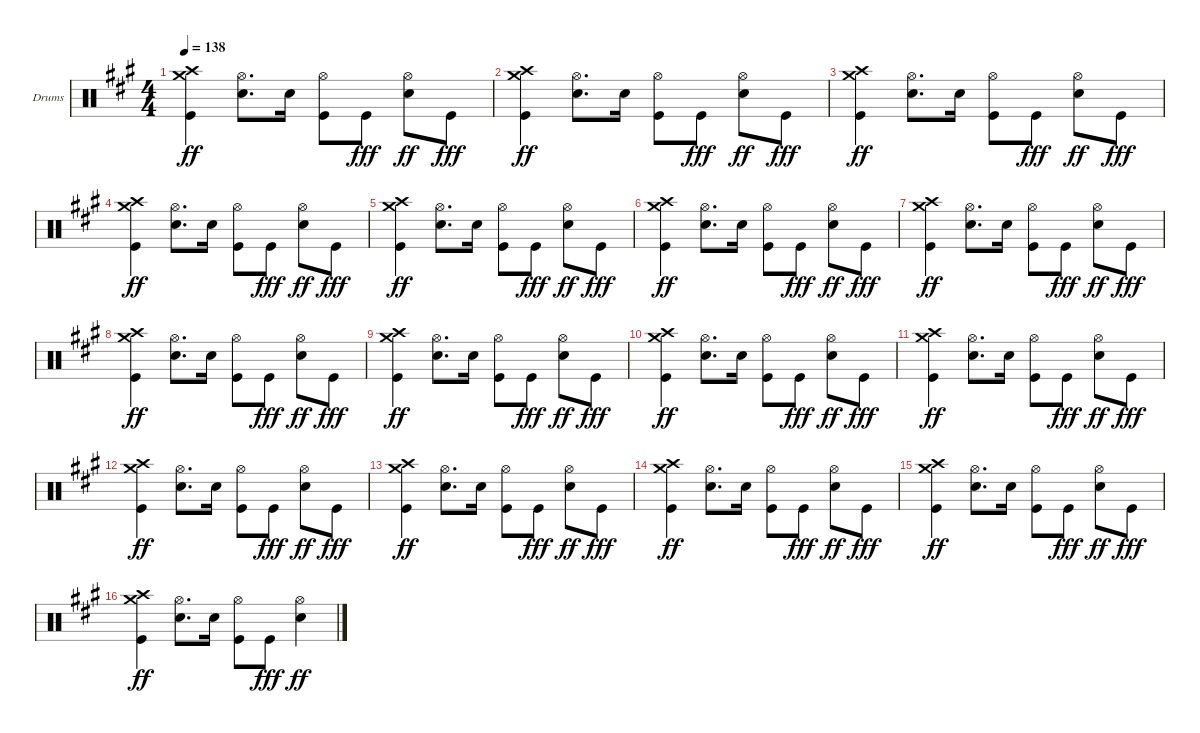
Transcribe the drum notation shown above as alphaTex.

\defaultSystemsLayout 4
\bracketExtendMode groupsimilarinstruments
\firstSystemTrackNameOrientation horizontal
\otherSystemsTrackNameOrientation horizontal
\track ("Drumkit" "Drums") {instrument percussion}
\staff {score}
\articulation defaults
\ts (4 4)
\tempo 138
\clef neutral
\scale
1.05801
\ks a
("Crash high (hit)" "Crash medium (hit)" "Kick (hit)").4{dy ff} ("Hi-Hat (open)" "Snare (hit) 2").8{d} "Snare (hit) 2".16 ("Hi-Hat (open)" "Kick (hit)").8 "Kick (hit)".8{dy fff} ("Hi-Hat (open)" "Snare (hit) 2").8{dy ff} "Kick (hit)".8{dy fff} |
\scale
0.941992 ("Crash high (hit)" "Crash medium (hit)" "Kick (hit)").4{dy ff} ("Hi-Hat (open)" "Snare (hit) 2").8{d} "Snare (hit) 2".16 ("Hi-Hat (open)" "Kick (hit)").8 "Kick (hit)".8{dy fff} ("Hi-Hat (open)" "Snare (hit) 2").8{dy ff} "Kick (hit)".8{dy fff} |
\scale
1.05801 ("Crash high (hit)" "Crash medium (hit)" "Kick (hit)").4{dy ff} ("Hi-Hat (open)" "Snare (hit) 2").8{d} "Snare (hit) 2".16 ("Hi-Hat (open)" "Kick (hit)").8 "Kick (hit)".8{dy fff} ("Hi-Hat (open)" "Snare (hit) 2").8{dy ff} "Kick (hit)".8{dy fff} |
\scale
0.941992 ("Crash high (hit)" "Crash medium (hit)" "Kick (hit)").4{dy ff} ("Hi-Hat (open)" "Snare (hit) 2").8{d} "Snare (hit) 2".16 ("Hi-Hat (open)" "Kick (hit)").8 "Kick (hit)".8{dy fff} ("Hi-Hat (open)" "Snare (hit) 2").8{dy ff} "Kick (hit)".8{dy fff} |
\scale
1.05801 ("Crash high (hit)" "Crash medium (hit)" "Kick (hit)").4{dy ff} ("Hi-Hat (open)" "Snare (hit) 2").8{d} "Snare (hit) 2".16 ("Hi-Hat (open)" "Kick (hit)").8 "Kick (hit)".8{dy fff} ("Hi-Hat (open)" "Snare (hit) 2").8{dy ff} "Kick (hit)".8{dy fff} |
\scale
0.941992 ("Crash high (hit)" "Crash medium (hit)" "Kick (hit)").4{dy ff} ("Hi-Hat (open)" "Snare (hit) 2").8{d} "Snare (hit) 2".16 ("Hi-Hat (open)" "Kick (hit)").8 "Kick (hit)".8{dy fff} ("Hi-Hat (open)" "Snare (hit) 2").8{dy ff} "Kick (hit)".8{dy fff} |
\scale
1.05801 ("Crash high (hit)" "Crash medium (hit)" "Kick (hit)").4{dy ff} ("Hi-Hat (open)" "Snare (hit) 2").8{d} "Snare (hit) 2".16 ("Hi-Hat (open)" "Kick (hit)").8 "Kick (hit)".8{dy fff} ("Hi-Hat (open)" "Snare (hit) 2").8{dy ff} "Kick (hit)".8{dy fff} |
\scale
0.941992 ("Crash high (hit)" "Crash medium (hit)" "Kick (hit)").4{dy ff} ("Hi-Hat (open)" "Snare (hit) 2").8{d} "Snare (hit) 2".16 ("Hi-Hat (open)" "Kick (hit)").8 "Kick (hit)".8{dy fff} ("Hi-Hat (open)" "Snare (hit) 2").8{dy ff} "Kick (hit)".8{dy fff} |
\scale
1.05801 ("Crash high (hit)" "Crash medium (hit)" "Kick (hit)").4{dy ff} ("Hi-Hat (open)" "Snare (hit) 2").8{d} "Snare (hit) 2".16 ("Hi-Hat (open)" "Kick (hit)").8 "Kick (hit)".8{dy fff} ("Hi-Hat (open)" "Snare (hit) 2").8{dy ff} "Kick (hit)".8{dy fff} |
\scale
0.941992 ("Crash high (hit)" "Crash medium (hit)" "Kick (hit)").4{dy ff} ("Hi-Hat (open)" "Snare (hit) 2").8{d} "Snare (hit) 2".16 ("Hi-Hat (open)" "Kick (hit)").8 "Kick (hit)".8{dy fff} ("Hi-Hat (open)" "Snare (hit) 2").8{dy ff} "Kick (hit)".8{dy fff} |
\scale
1.05801 ("Crash high (hit)" "Crash medium (hit)" "Kick (hit)").4{dy ff} ("Hi-Hat (open)" "Snare (hit) 2").8{d} "Snare (hit) 2".16 ("Hi-Hat (open)" "Kick (hit)").8 "Kick (hit)".8{dy fff} ("Hi-Hat (open)" "Snare (hit) 2").8{dy ff} "Kick (hit)".8{dy fff} |
\scale
0.941992 ("Crash high (hit)" "Crash medium (hit)" "Kick (hit)").4{dy ff} ("Hi-Hat (open)" "Snare (hit) 2").8{d} "Snare (hit) 2".16 ("Hi-Hat (open)" "Kick (hit)").8 "Kick (hit)".8{dy fff} ("Hi-Hat (open)" "Snare (hit) 2").8{dy ff} "Kick (hit)".8{dy fff} |
\scale
1.05801 ("Crash high (hit)" "Crash medium (hit)" "Kick (hit)").4{dy ff} ("Hi-Hat (open)" "Snare (hit) 2").8{d} "Snare (hit) 2".16 ("Hi-Hat (open)" "Kick (hit)").8 "Kick (hit)".8{dy fff} ("Hi-Hat (open)" "Snare (hit) 2").8{dy ff} "Kick (hit)".8{dy fff} |
\scale
0.941992 ("Crash high (hit)" "Crash medium (hit)" "Kick (hit)").4{dy ff} ("Hi-Hat (open)" "Snare (hit) 2").8{d} "Snare (hit) 2".16 ("Hi-Hat (open)" "Kick (hit)").8 "Kick (hit)".8{dy fff} ("Hi-Hat (open)" "Snare (hit) 2").8{dy ff} "Kick (hit)".8{dy fff} |
\scale
1.05801 ("Crash high (hit)" "Crash medium (hit)" "Kick (hit)").4{dy ff} ("Hi-Hat (open)" "Snare (hit) 2").8{d} "Snare (hit) 2".16 ("Hi-Hat (open)" "Kick (hit)").8 "Kick (hit)".8{dy fff} ("Hi-Hat (open)" "Snare (hit) 2").8{dy ff} "Kick (hit)".8{dy fff} |
\scale
0.941992 ("Crash high (hit)" "Crash medium (hit)" "Kick (hit)").4{dy ff} ("Hi-Hat (open)" "Snare (hit) 2").8{d} "Snare (hit) 2".16 ("Hi-Hat (open)" "Kick (hit)").8 "Kick (hit)".8{dy fff} ("Hi-Hat (open)" "Snare (hit) 2").4{dy ff}
